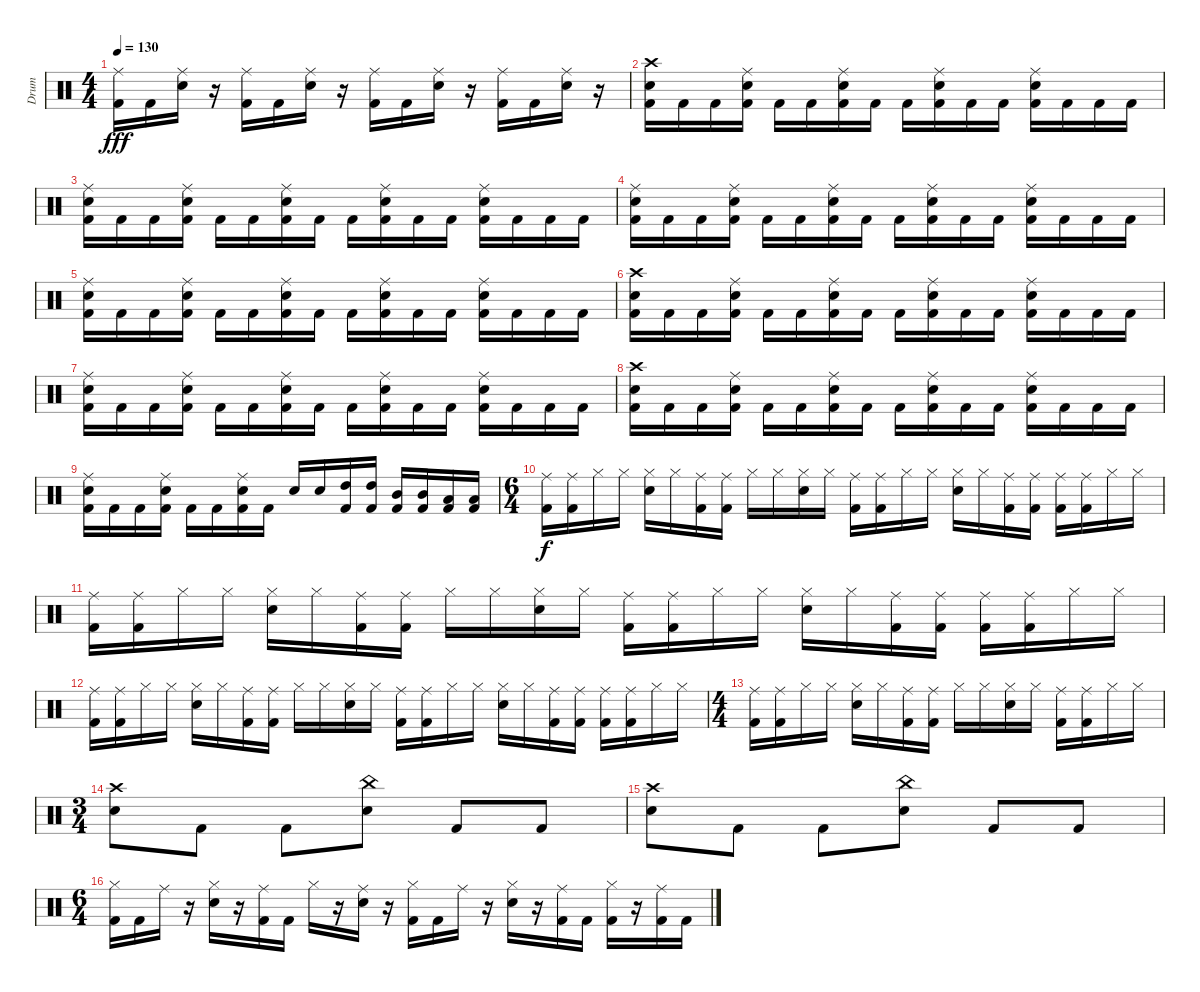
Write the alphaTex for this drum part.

\track ("Drum" "Drum") {instrument percussion}
\staff {score}
\articulation defaults
\ts (4 4)
\tempo 130
\clef neutral
\ks c
("Ride (middle)" "Kick (hit) 2").16{dy fff} "Kick (hit) 2".16 ("Ride (middle)" "Snare (hit) 2").16 r.16 ("Ride (middle)" "Kick (hit) 2").16 "Kick (hit) 2".16 ("Ride (middle)" "Snare (hit) 2").16 r.16 ("Ride (middle)" "Kick (hit) 2").16 "Kick (hit) 2".16 ("Ride (middle)" "Snare (hit) 2").16 r.16 ("Ride (middle)" "Kick (hit) 2").16 "Kick (hit) 2".16 ("Ride (middle)" "Snare (hit) 2").16 r.16 |
("Crash high (hit)" "Snare (hit) 2" "Kick (hit) 2").16 "Kick (hit) 2".16 "Kick (hit) 2".16 ("Ride (middle)" "Snare (hit) 2" "Kick (hit) 2").16 "Kick (hit) 2".16 "Kick (hit) 2".16 ("Ride (middle)" "Snare (hit) 2" "Kick (hit) 2").16 "Kick (hit) 2".16 "Kick (hit) 2".16 ("Ride (middle)" "Snare (hit) 2" "Kick (hit) 2").16 "Kick (hit) 2".16 "Kick (hit) 2".16 ("Ride (middle)" "Snare (hit) 2" "Kick (hit) 2").16 "Kick (hit) 2".16 "Kick (hit) 2".16 "Kick (hit) 2".16 |
("Ride (middle)" "Snare (hit) 2" "Kick (hit) 2").16 "Kick (hit) 2".16 "Kick (hit) 2".16 ("Ride (middle)" "Snare (hit) 2" "Kick (hit) 2").16 "Kick (hit) 2".16 "Kick (hit) 2".16 ("Ride (middle)" "Snare (hit) 2" "Kick (hit) 2").16 "Kick (hit) 2".16 "Kick (hit) 2".16 ("Ride (middle)" "Snare (hit) 2" "Kick (hit) 2").16 "Kick (hit) 2".16 "Kick (hit) 2".16 ("Ride (middle)" "Snare (hit) 2" "Kick (hit) 2").16 "Kick (hit) 2".16 "Kick (hit) 2".16 "Kick (hit) 2".16 |
("Ride (middle)" "Snare (hit) 2" "Kick (hit) 2").16 "Kick (hit) 2".16 "Kick (hit) 2".16 ("Ride (middle)" "Snare (hit) 2" "Kick (hit) 2").16 "Kick (hit) 2".16 "Kick (hit) 2".16 ("Ride (middle)" "Snare (hit) 2" "Kick (hit) 2").16 "Kick (hit) 2".16 "Kick (hit) 2".16 ("Ride (middle)" "Snare (hit) 2" "Kick (hit) 2").16 "Kick (hit) 2".16 "Kick (hit) 2".16 ("Ride (middle)" "Snare (hit) 2" "Kick (hit) 2").16 "Kick (hit) 2".16 "Kick (hit) 2".16 "Kick (hit) 2".16 |
("Ride (middle)" "Snare (hit) 2" "Kick (hit) 2").16 "Kick (hit) 2".16 "Kick (hit) 2".16 ("Ride (middle)" "Snare (hit) 2" "Kick (hit) 2").16 "Kick (hit) 2".16 "Kick (hit) 2".16 ("Ride (middle)" "Snare (hit) 2" "Kick (hit) 2").16 "Kick (hit) 2".16 "Kick (hit) 2".16 ("Ride (middle)" "Snare (hit) 2" "Kick (hit) 2").16 "Kick (hit) 2".16 "Kick (hit) 2".16 ("Ride (middle)" "Snare (hit) 2" "Kick (hit) 2").16 "Kick (hit) 2".16 "Kick (hit) 2".16 "Kick (hit) 2".16 |
("Crash high (hit)" "Snare (hit) 2" "Kick (hit) 2").16 "Kick (hit) 2".16 "Kick (hit) 2".16 ("Ride (middle)" "Snare (hit) 2" "Kick (hit) 2").16 "Kick (hit) 2".16 "Kick (hit) 2".16 ("Ride (middle)" "Snare (hit) 2" "Kick (hit) 2").16 "Kick (hit) 2".16 "Kick (hit) 2".16 ("Ride (middle)" "Snare (hit) 2" "Kick (hit) 2").16 "Kick (hit) 2".16 "Kick (hit) 2".16 ("Ride (middle)" "Snare (hit) 2" "Kick (hit) 2").16 "Kick (hit) 2".16 "Kick (hit) 2".16 "Kick (hit) 2".16 |
("Ride (middle)" "Snare (hit) 2" "Kick (hit) 2").16 "Kick (hit) 2".16 "Kick (hit) 2".16 ("Ride (middle)" "Snare (hit) 2" "Kick (hit) 2").16 "Kick (hit) 2".16 "Kick (hit) 2".16 ("Ride (middle)" "Snare (hit) 2" "Kick (hit) 2").16 "Kick (hit) 2".16 "Kick (hit) 2".16 ("Ride (middle)" "Snare (hit) 2" "Kick (hit) 2").16 "Kick (hit) 2".16 "Kick (hit) 2".16 ("Ride (middle)" "Snare (hit) 2" "Kick (hit) 2").16 "Kick (hit) 2".16 "Kick (hit) 2".16 "Kick (hit) 2".16 |
("Crash high (hit)" "Snare (hit) 2" "Kick (hit) 2").16 "Kick (hit) 2".16 "Kick (hit) 2".16 ("Ride (middle)" "Snare (hit) 2" "Kick (hit) 2").16 "Kick (hit) 2".16 "Kick (hit) 2".16 ("Ride (middle)" "Snare (hit) 2" "Kick (hit) 2").16 "Kick (hit) 2".16 "Kick (hit) 2".16 ("Ride (middle)" "Snare (hit) 2" "Kick (hit) 2").16 "Kick (hit) 2".16 "Kick (hit) 2".16 ("Ride (middle)" "Snare (hit) 2" "Kick (hit) 2").16 "Kick (hit) 2".16 "Kick (hit) 2".16 "Kick (hit) 2".16 |
("Ride (middle)" "Snare (hit) 2" "Kick (hit) 2").16 "Kick (hit) 2".16 "Kick (hit) 2".16 ("Ride (middle)" "Snare (hit) 2" "Kick (hit) 2").16 "Kick (hit) 2".16 "Kick (hit) 2".16 ("Ride (middle)" "Snare (hit) 2" "Kick (hit) 2").16 "Kick (hit) 2".16 "Snare (hit) 2".16 "Snare (hit) 2".16 ("High Tom (hit)" "Kick (hit) 2").16 ("High Tom (hit)" "Kick (hit) 2").16 ("Mid Tom (hit)" "Kick (hit) 2").16 ("Mid Tom (hit)" "Kick (hit) 2").16 ("Low Tom (hit)" "Kick (hit) 2").16 ("Low Tom (hit)" "Kick (hit) 2").16 |
\ts (6 4)
("Ride (middle)" "Kick (hit) 2").16{dy f} ("Ride (middle)" "Kick (hit) 2").16 "Hi-Hat (closed)".16 "Hi-Hat (closed)".16 ("Hi-Hat (closed)" "Snare (hit) 2").16 "Hi-Hat (closed)".16 ("Ride (middle)" "Kick (hit) 2").16 ("Ride (middle)" "Kick (hit) 2").16 "Hi-Hat (closed)".16 "Hi-Hat (closed)".16 ("Hi-Hat (closed)" "Snare (hit) 2").16 "Hi-Hat (closed)".16 ("Ride (middle)" "Kick (hit) 2").16 ("Ride (middle)" "Kick (hit) 2").16 "Hi-Hat (closed)".16 "Hi-Hat (closed)".16 ("Hi-Hat (closed)" "Snare (hit) 2").16 "Hi-Hat (closed)".16 ("Ride (middle)" "Kick (hit) 2").16 ("Ride (middle)" "Kick (hit) 2").16 ("Ride (middle)" "Kick (hit) 2").16 ("Ride (middle)" "Kick (hit) 2").16 "Hi-Hat (closed)".16 "Hi-Hat (closed)".16 |
("Ride (middle)" "Kick (hit) 2").16 ("Ride (middle)" "Kick (hit) 2").16 "Hi-Hat (closed)".16 "Hi-Hat (closed)".16 ("Hi-Hat (closed)" "Snare (hit) 2").16 "Hi-Hat (closed)".16 ("Ride (middle)" "Kick (hit) 2").16 ("Ride (middle)" "Kick (hit) 2").16 "Hi-Hat (closed)".16 "Hi-Hat (closed)".16 ("Hi-Hat (closed)" "Snare (hit) 2").16 "Hi-Hat (closed)".16 ("Ride (middle)" "Kick (hit) 2").16 ("Ride (middle)" "Kick (hit) 2").16 "Hi-Hat (closed)".16 "Hi-Hat (closed)".16 ("Hi-Hat (closed)" "Snare (hit) 2").16 "Hi-Hat (closed)".16 ("Ride (middle)" "Kick (hit) 2").16 ("Ride (middle)" "Kick (hit) 2").16 ("Ride (middle)" "Kick (hit) 2").16 ("Ride (middle)" "Kick (hit) 2").16 "Hi-Hat (closed)".16 "Hi-Hat (closed)".16 |
("Ride (middle)" "Kick (hit) 2").16 ("Ride (middle)" "Kick (hit) 2").16 "Hi-Hat (closed)".16 "Hi-Hat (closed)".16 ("Hi-Hat (closed)" "Snare (hit) 2").16 "Hi-Hat (closed)".16 ("Ride (middle)" "Kick (hit) 2").16 ("Ride (middle)" "Kick (hit) 2").16 "Hi-Hat (closed)".16 "Hi-Hat (closed)".16 ("Hi-Hat (closed)" "Snare (hit) 2").16 "Hi-Hat (closed)".16 ("Ride (middle)" "Kick (hit) 2").16 ("Ride (middle)" "Kick (hit) 2").16 "Hi-Hat (closed)".16 "Hi-Hat (closed)".16 ("Hi-Hat (closed)" "Snare (hit) 2").16 "Hi-Hat (closed)".16 ("Ride (middle)" "Kick (hit) 2").16 ("Ride (middle)" "Kick (hit) 2").16 ("Ride (middle)" "Kick (hit) 2").16 ("Ride (middle)" "Kick (hit) 2").16 "Hi-Hat (closed)".16 "Hi-Hat (closed)".16 |
\ts (4 4)
("Ride (middle)" "Kick (hit) 2").16 ("Ride (middle)" "Kick (hit) 2").16 "Hi-Hat (closed)".16 "Hi-Hat (closed)".16 ("Hi-Hat (closed)" "Snare (hit) 2").16 "Hi-Hat (closed)".16 ("Ride (middle)" "Kick (hit) 2").16 ("Ride (middle)" "Kick (hit) 2").16 "Hi-Hat (closed)".16 "Hi-Hat (closed)".16 ("Hi-Hat (closed)" "Snare (hit) 2").16 "Hi-Hat (closed)".16 ("Ride (middle)" "Kick (hit) 2").16 ("Ride (middle)" "Kick (hit) 2").16 "Hi-Hat (closed)".16 "Hi-Hat (closed)".16 |
\ts (3 4)
("Crash high (hit)" "Snare (hit) 2").8 "Kick (hit) 2".8 "Kick (hit) 2".8 ("China (hit)" "Snare (hit) 2").8 "Kick (hit) 2".8 "Kick (hit) 2".8 |
("Crash high (hit)" "Snare (hit) 2").8 "Kick (hit) 2".8 "Kick (hit) 2".8 ("China (hit)" "Snare (hit) 2").8 "Kick (hit) 2".8 "Kick (hit) 2".8 |
\ts (6 4)
("Hi-Hat (closed)" "Kick (hit) 2").16 "Kick (hit) 2".16 "Ride (middle)".16 r.16 ("Hi-Hat (closed)" "Snare (hit) 2").16 r.16 ("Ride (middle)" "Kick (hit) 2").16 "Kick (hit) 2".16 "Hi-Hat (closed)".16 r.16 ("Ride (middle)" "Snare (hit) 2").16 r.16 ("Hi-Hat (closed)" "Kick (hit) 2").16 "Kick (hit) 2".16 "Ride (middle)".16 r.16 ("Hi-Hat (closed)" "Snare (hit) 2").16 r.16 ("Ride (middle)" "Kick (hit) 2").16 "Kick (hit) 2".16 ("Hi-Hat (closed)" "Kick (hit) 2").16 r.16 ("Ride (middle)" "Kick (hit) 2").16 "Kick (hit) 2".16
